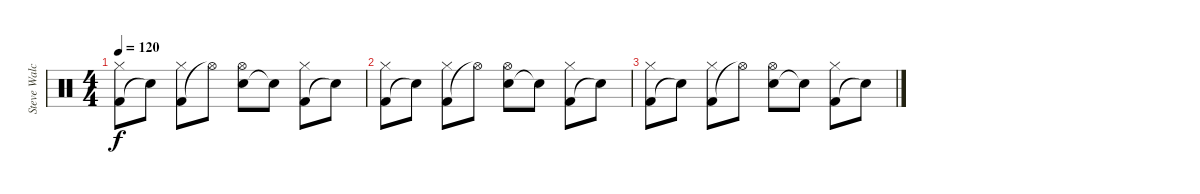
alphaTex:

\track ("Steve Walchoz" "Steve Walc") {instrument percussion}
\staff {score}
\articulation defaults
\ts (4 4)
\tempo 120
\clef neutral
\ks c
("Kick (hit) 2" "Hi-Hat (closed)").8{dy f} "Snare (hit)"{t}.8 ("Kick (hit) 2" "Hi-Hat (closed)").8 "Hi-Hat (open)"{t}.8 ("Electric Snare (hit)" "Hi-Hat (open)").8 "Snare (hit)"{t}.8 ("Kick (hit) 2" "Hi-Hat (closed)").8 "Snare (hit)"{t}.8 |
("Kick (hit) 2" "Hi-Hat (closed)").8 "Snare (hit)"{t}.8 ("Kick (hit) 2" "Hi-Hat (closed)").8 "Hi-Hat (open)"{t}.8 ("Electric Snare (hit)" "Hi-Hat (open)").8 "Snare (hit)"{t}.8 ("Kick (hit) 2" "Hi-Hat (closed)").8 "Snare (hit)"{t}.8 |
("Kick (hit) 2" "Hi-Hat (closed)").8 "Snare (hit)"{t}.8 ("Kick (hit) 2" "Hi-Hat (closed)").8 "Hi-Hat (open)"{t}.8 ("Electric Snare (hit)" "Hi-Hat (open)").8 "Snare (hit)"{t}.8 ("Kick (hit) 2" "Hi-Hat (closed)").8 "Snare (hit)"{t}.8
